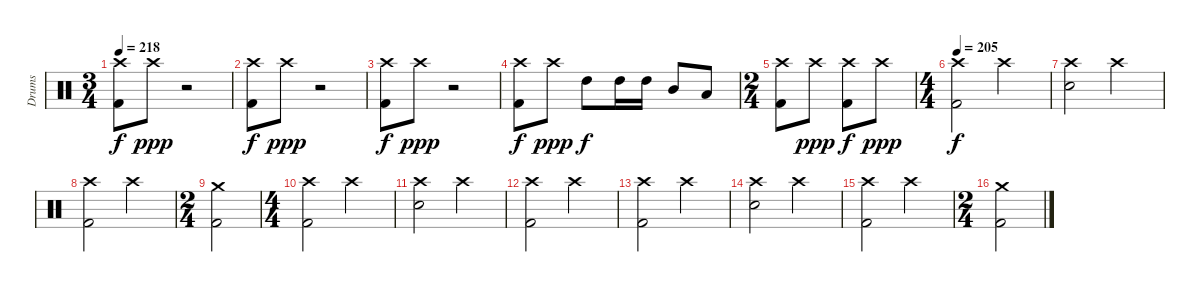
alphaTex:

\track ("Drums" "Drums") {instrument percussion}
\staff {score}
\articulation defaults
\ts (3 4)
\tempo 218
\clef neutral
\ks c
("Crash high (hit)" "Kick (hit) 2").8{dy f} "Crash high (hit)".8{dy ppp} r.2 |
("Crash high (hit)" "Kick (hit) 2").8{dy f} "Crash high (hit)".8{dy ppp} r.2 |
("Crash high (hit)" "Kick (hit) 2").8{dy f} "Crash high (hit)".8{dy ppp} r.2 |
("Crash high (hit)" "Kick (hit) 2").8{dy f} "Crash high (hit)".8{dy ppp} "High Tom (hit)".8{dy f} "High Tom (hit)".16 "High Tom (hit)".16 "Mid Tom (hit)".8 "Low Tom (hit)".8 |
\ts (2 4)
("Crash high (hit)" "Kick (hit) 2").8 "Crash high (hit)".8{dy ppp} ("Crash high (hit)" "Kick (hit) 2").8{dy f} "Crash high (hit)".8{dy ppp} |
\ts (4 4)
\tempo 205
("Crash high (hit)" "Kick (hit) 2").2{dy f} "Crash high (hit)".2 |
("Crash high (hit)" "Electric Snare (hit)").2 "Crash high (hit)".2 |
("Crash high (hit)" "Kick (hit) 2").2 "Crash high (hit)".2 |
\ts (2 4)
("Crash medium (hit)" "Kick (hit) 2").2 |
\ts (4 4)
("Crash high (hit)" "Kick (hit) 2").2 "Crash high (hit)".2 |
("Crash high (hit)" "Electric Snare (hit)").2 "Crash high (hit)".2 |
("Crash high (hit)" "Kick (hit) 2").2 "Crash high (hit)".2 |
("Crash high (hit)" "Kick (hit) 2").2 "Crash high (hit)".2 |
("Crash high (hit)" "Electric Snare (hit)").2 "Crash high (hit)".2 |
("Crash high (hit)" "Kick (hit) 2").2 "Crash high (hit)".2 |
\ts (2 4)
("Crash medium (hit)" "Kick (hit) 2").2
